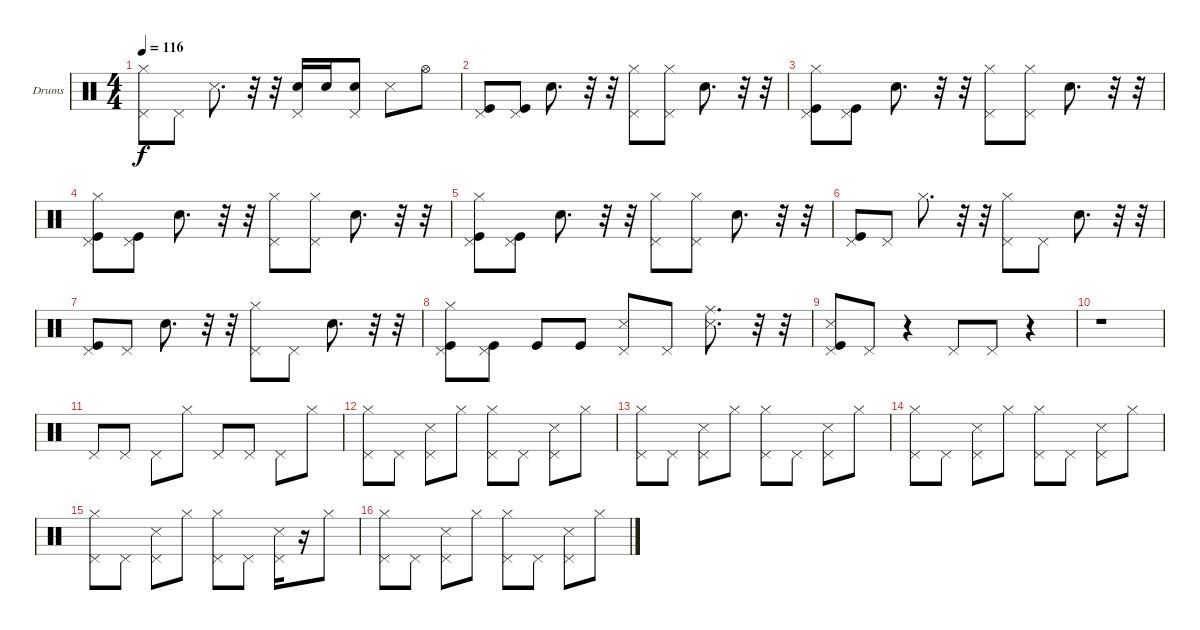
\bracketExtendMode groupsimilarinstruments
\firstSystemTrackNameOrientation horizontal
\otherSystemsTrackNameOrientation horizontal
\track ("Drumkit" "Drums") {instrument percussion}
\staff {score}
\articulation defaults
\ts (4 4)
\tempo 116
\clef neutral
\ks c
("Hi-Hat (closed)" "Pedal Hi-Hat (hit)").8{dy f} "Pedal Hi-Hat (hit)".8 "Snare (side stick) 3".8{d} r.32 r.32 ("Snare (hit) 2" "Pedal Hi-Hat (hit)").16 "Snare (hit) 2".16 ("Snare (hit) 2" "Pedal Hi-Hat (hit)").8 "Snare (side stick) 3".8 "Hi-Hat (open)".8 |
("Kick (hit)" "Pedal Hi-Hat (hit)").8 ("Kick (hit)" "Pedal Hi-Hat (hit)").8 "Snare (hit) 2".8{d} r.32 r.32 ("Hi-Hat (closed)" "Pedal Hi-Hat (hit)").8 ("Hi-Hat (closed)" "Pedal Hi-Hat (hit)").8 "Snare (hit) 2".8{d} r.32 r.32 |
("Kick (hit)" "Hi-Hat (closed)" "Pedal Hi-Hat (hit)").8 ("Kick (hit)" "Pedal Hi-Hat (hit)").8 "Snare (hit) 2".8{d} r.32 r.32 ("Hi-Hat (closed)" "Pedal Hi-Hat (hit)").8 ("Hi-Hat (closed)" "Pedal Hi-Hat (hit)").8 "Snare (hit) 2".8{d} r.32 r.32 |
("Kick (hit)" "Hi-Hat (closed)" "Pedal Hi-Hat (hit)").8 ("Kick (hit)" "Pedal Hi-Hat (hit)").8 "Snare (hit) 2".8{d} r.32 r.32 ("Hi-Hat (closed)" "Pedal Hi-Hat (hit)").8 ("Hi-Hat (closed)" "Pedal Hi-Hat (hit)").8 "Snare (hit) 2".8{d} r.32 r.32 |
("Kick (hit)" "Hi-Hat (closed)" "Pedal Hi-Hat (hit)").8 ("Kick (hit)" "Pedal Hi-Hat (hit)").8 "Snare (hit) 2".8{d} r.32 r.32 ("Hi-Hat (closed)" "Pedal Hi-Hat (hit)").8 ("Hi-Hat (closed)" "Pedal Hi-Hat (hit)").8 "Snare (hit) 2".8{d} r.32 r.32 |
("Kick (hit)" "Pedal Hi-Hat (hit)").8 "Pedal Hi-Hat (hit)".8 "Hi-Hat (closed)".8{d} r.32 r.32 ("Hi-Hat (closed)" "Pedal Hi-Hat (hit)").8 "Pedal Hi-Hat (hit)".8 "Snare (hit) 2".8{d} r.32 r.32 |
("Kick (hit)" "Pedal Hi-Hat (hit)").8 "Pedal Hi-Hat (hit)".8 "Snare (hit) 2".8{d} r.32 r.32 ("Hi-Hat (closed)" "Pedal Hi-Hat (hit)").8 "Pedal Hi-Hat (hit)".8 "Snare (hit) 2".8{d} r.32 r.32 |
("Kick (hit)" "Hi-Hat (closed)" "Pedal Hi-Hat (hit)").8 ("Kick (hit)" "Pedal Hi-Hat (hit)").8 "Kick (hit)".8 "Kick (hit)".8 ("Snare (side stick) 3" "Pedal Hi-Hat (hit)").8 "Pedal Hi-Hat (hit)".8 ("Snare (side stick) 3" "Ride (middle)").8{d} r.32 r.32 |
("Snare (side stick) 3" "Kick (hit)" "Pedal Hi-Hat (hit)").8 "Pedal Hi-Hat (hit)".8 r.4 "Pedal Hi-Hat (hit)".8 "Pedal Hi-Hat (hit)".8 r.4 |
r.1 |
"Pedal Hi-Hat (hit)".8 "Pedal Hi-Hat (hit)".8 "Pedal Hi-Hat (hit)".8 "Hi-Hat (closed)".8 "Pedal Hi-Hat (hit)".8 "Pedal Hi-Hat (hit)".8 "Pedal Hi-Hat (hit)".8 "Hi-Hat (closed)".8 |
("Hi-Hat (closed)" "Pedal Hi-Hat (hit)").8 "Pedal Hi-Hat (hit)".8 ("Snare (side stick) 3" "Pedal Hi-Hat (hit)").8 "Hi-Hat (closed)".8 ("Hi-Hat (closed)" "Pedal Hi-Hat (hit)").8 "Pedal Hi-Hat (hit)".8 ("Snare (side stick) 3" "Pedal Hi-Hat (hit)").8 "Hi-Hat (closed)".8 |
("Hi-Hat (closed)" "Pedal Hi-Hat (hit)").8 "Pedal Hi-Hat (hit)".8 ("Snare (side stick) 3" "Pedal Hi-Hat (hit)").8 "Hi-Hat (closed)".8 ("Hi-Hat (closed)" "Pedal Hi-Hat (hit)").8 "Pedal Hi-Hat (hit)".8 ("Snare (side stick) 3" "Pedal Hi-Hat (hit)").8 "Hi-Hat (closed)".8 |
("Hi-Hat (closed)" "Pedal Hi-Hat (hit)").8 "Pedal Hi-Hat (hit)".8 ("Snare (side stick) 3" "Pedal Hi-Hat (hit)").8 "Hi-Hat (closed)".8 ("Hi-Hat (closed)" "Pedal Hi-Hat (hit)").8 "Pedal Hi-Hat (hit)".8 ("Snare (side stick) 3" "Pedal Hi-Hat (hit)").8 "Hi-Hat (closed)".8 |
("Hi-Hat (closed)" "Pedal Hi-Hat (hit)").8 "Pedal Hi-Hat (hit)".8 ("Snare (side stick) 3" "Pedal Hi-Hat (hit)").8 "Hi-Hat (closed)".8 ("Hi-Hat (closed)" "Pedal Hi-Hat (hit)").8 "Pedal Hi-Hat (hit)".8 ("Snare (side stick) 3" "Pedal Hi-Hat (hit)").16 r.16 "Hi-Hat (closed)".8 |
("Hi-Hat (closed)" "Pedal Hi-Hat (hit)").8 "Pedal Hi-Hat (hit)".8 ("Snare (side stick) 3" "Pedal Hi-Hat (hit)").8 "Hi-Hat (closed)".8 ("Hi-Hat (closed)" "Pedal Hi-Hat (hit)").8 "Pedal Hi-Hat (hit)".8 ("Snare (side stick) 3" "Pedal Hi-Hat (hit)").8 "Hi-Hat (closed)".8
